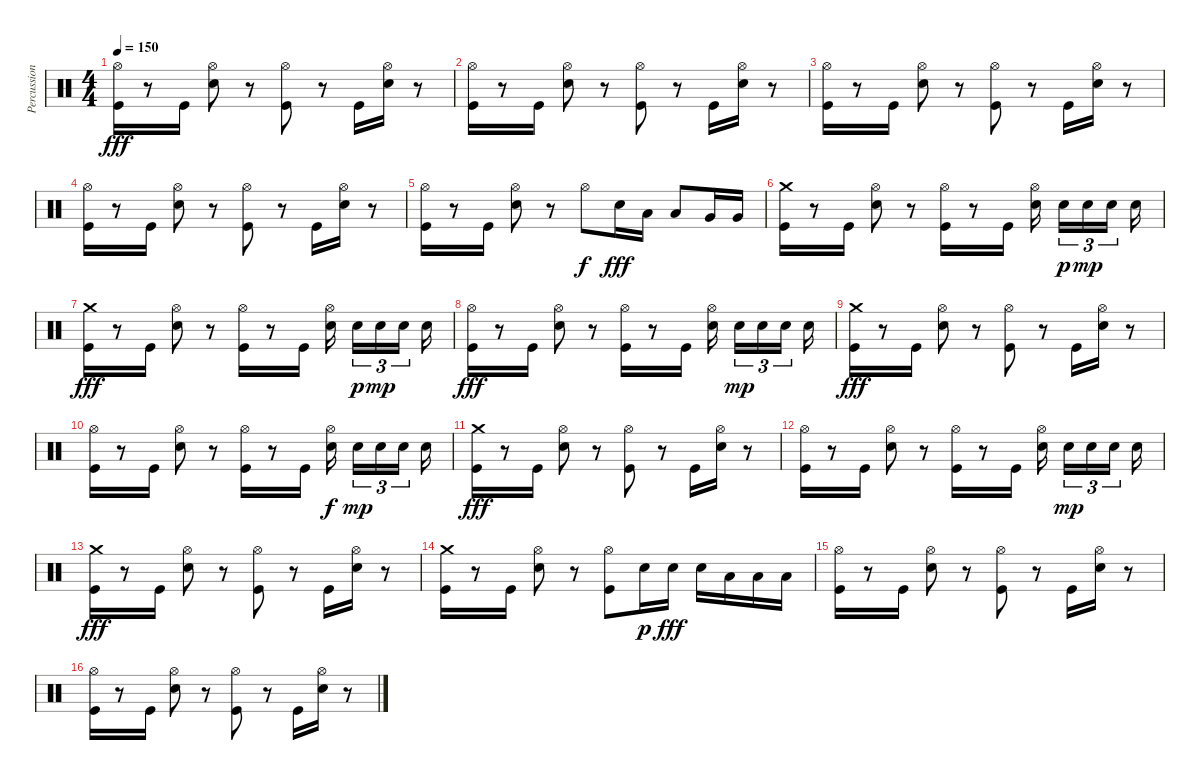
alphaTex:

\track ("Percussion" "Percussion") {instrument percussion}
\staff {score}
\articulation defaults
\ts (4 4)
\tempo 150
\clef neutral
\ks c
("Kick (hit)" "Hi-Hat (open)").16{dy fff} r.8 "Kick (hit)".16 ("Electric Snare (hit)" "Hi-Hat (open)").8 r.8 ("Kick (hit)" "Hi-Hat (open)").8 r.8 "Kick (hit)".16 ("Electric Snare (hit)" "Hi-Hat (open)").16 r.8 |
("Kick (hit)" "Hi-Hat (open)").16 r.8 "Kick (hit)".16 ("Electric Snare (hit)" "Hi-Hat (open)").8 r.8 ("Kick (hit)" "Hi-Hat (open)").8 r.8 "Kick (hit)".16 ("Electric Snare (hit)" "Hi-Hat (open)").16 r.8 |
("Kick (hit)" "Hi-Hat (open)").16 r.8 "Kick (hit)".16 ("Electric Snare (hit)" "Hi-Hat (open)").8 r.8 ("Kick (hit)" "Hi-Hat (open)").8 r.8 "Kick (hit)".16 ("Electric Snare (hit)" "Hi-Hat (open)").16 r.8 |
("Kick (hit)" "Hi-Hat (open)").16 r.8 "Kick (hit)".16 ("Electric Snare (hit)" "Hi-Hat (open)").8 r.8 ("Kick (hit)" "Hi-Hat (open)").8 r.8 "Kick (hit)".16 ("Electric Snare (hit)" "Hi-Hat (open)").16 r.8 |
("Hi-Hat (open)" "Kick (hit)").16 r.8 "Kick (hit)".16 ("Hi-Hat (open)" "Electric Snare (hit)").8 r.8 "Hi-Hat (open)".8{dy f} "Electric Snare (hit)".16{dy fff} "Low Tom (hit)".16 "Low Tom (hit)".8 "Very Low Tom (hit)".16 "Very Low Tom (hit)".16 |
("Kick (hit)" "Crash medium (hit)").16 r.8 "Kick (hit)".16 ("Electric Snare (hit)" "Hi-Hat (open)").8 r.8 ("Kick (hit)" "Hi-Hat (open)").16 r.8 "Kick (hit)".16 ("Electric Snare (hit)" "Hi-Hat (open)").16 "Electric Snare (hit)".16{tu (3 2) dy p} "Electric Snare (hit)".16{tu (3 2) dy mp} "Electric Snare (hit)".16{tu (3 2)} "Electric Snare (hit)".16 |
("Kick (hit)" "Crash medium (hit)").16{dy fff} r.8 "Kick (hit)".16 ("Electric Snare (hit)" "Hi-Hat (open)").8 r.8 ("Kick (hit)" "Hi-Hat (open)").16 r.8 "Kick (hit)".16 ("Electric Snare (hit)" "Hi-Hat (open)").16 "Electric Snare (hit)".16{tu (3 2) dy p} "Electric Snare (hit)".16{tu (3 2) dy mp} "Electric Snare (hit)".16{tu (3 2)} "Electric Snare (hit)".16 |
("Kick (hit)" "Hi-Hat (open)").16{dy fff} r.8 "Kick (hit)".16 ("Electric Snare (hit)" "Hi-Hat (open)").8 r.8 ("Hi-Hat (open)" "Kick (hit)").16 r.8 "Kick (hit)".16 ("Hi-Hat (open)" "Electric Snare (hit)").16 "Electric Snare (hit)".16{tu (3 2) dy mp} "Electric Snare (hit)".16{tu (3 2)} "Electric Snare (hit)".16{tu (3 2)} "Electric Snare (hit)".16 |
("Kick (hit)" "Crash medium (hit)").16{dy fff} r.8 "Kick (hit)".16 ("Electric Snare (hit)" "Hi-Hat (open)").8 r.8 ("Hi-Hat (open)" "Kick (hit)").8 r.8 "Kick (hit)".16 ("Hi-Hat (open)" "Electric Snare (hit)").16 r.8 |
("Kick (hit)" "Hi-Hat (open)").16 r.8 "Kick (hit)".16 ("Electric Snare (hit)" "Hi-Hat (open)").8 r.8 ("Kick (hit)" "Hi-Hat (open)").16 r.8 "Kick (hit)".16 ("Electric Snare (hit)" "Hi-Hat (open)").16{dy f} "Electric Snare (hit)".16{tu (3 2) dy mp} "Electric Snare (hit)".16{tu (3 2)} "Electric Snare (hit)".16{tu (3 2)} "Electric Snare (hit)".16 |
("Kick (hit)" "Crash medium (hit)").16{dy fff} r.8 "Kick (hit)".16 ("Electric Snare (hit)" "Hi-Hat (open)").8 r.8 ("Hi-Hat (open)" "Kick (hit)").8 r.8 "Kick (hit)".16 ("Hi-Hat (open)" "Electric Snare (hit)").16 r.8 |
("Kick (hit)" "Hi-Hat (open)").16 r.8 "Kick (hit)".16 ("Electric Snare (hit)" "Hi-Hat (open)").8 r.8 ("Hi-Hat (open)" "Kick (hit)").16 r.8 "Kick (hit)".16 ("Hi-Hat (open)" "Electric Snare (hit)").16 "Electric Snare (hit)".16{tu (3 2) dy mp} "Electric Snare (hit)".16{tu (3 2)} "Electric Snare (hit)".16{tu (3 2)} "Electric Snare (hit)".16 |
("Kick (hit)" "Crash medium (hit)").16{dy fff} r.8 "Kick (hit)".16 ("Electric Snare (hit)" "Hi-Hat (open)").8 r.8 ("Hi-Hat (open)" "Kick (hit)").8 r.8 "Kick (hit)".16 ("Hi-Hat (open)" "Electric Snare (hit)").16 r.8 |
("Kick (hit)" "Crash medium (hit)").16 r.8 "Kick (hit)".16 ("Hi-Hat (open)" "Electric Snare (hit)").8 r.8 ("Hi-Hat (open)" "Kick (hit)").8 "Electric Snare (hit)".16{dy p} "Electric Snare (hit)".16{dy fff} "Electric Snare (hit)".16 "Low Tom (hit)".16 "Low Tom (hit)".16 "Low Tom (hit)".16 |
("Kick (hit)" "Hi-Hat (open)").16 r.8 "Kick (hit)".16 ("Electric Snare (hit)" "Hi-Hat (open)").8 r.8 ("Kick (hit)" "Hi-Hat (open)").8 r.8 "Kick (hit)".16 ("Electric Snare (hit)" "Hi-Hat (open)").16 r.8 |
("Kick (hit)" "Hi-Hat (open)").16 r.8 "Kick (hit)".16 ("Electric Snare (hit)" "Hi-Hat (open)").8 r.8 ("Kick (hit)" "Hi-Hat (open)").8 r.8 "Kick (hit)".16 ("Electric Snare (hit)" "Hi-Hat (open)").16 r.8
